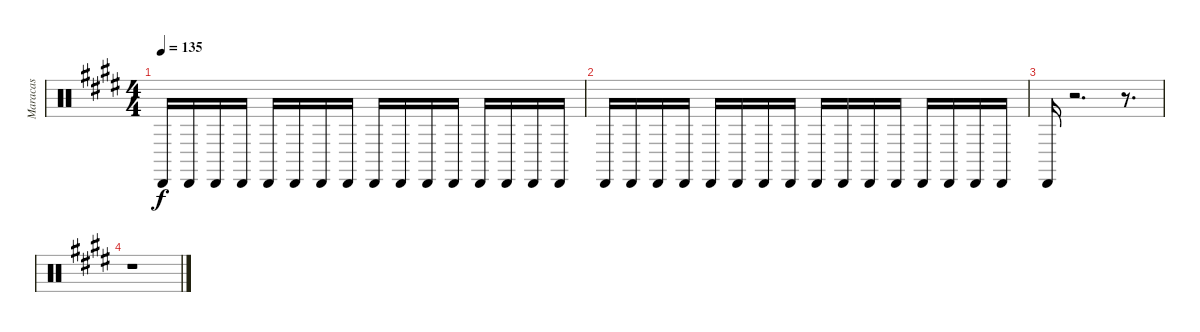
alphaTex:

\track ("Maracas" "Maracas") {instrument percussion}
\staff {score}
\articulation defaults
\ts (4 4)
\tempo 135
\clef neutral
\ks e "Cabasa (hit)".16{dy f} "Cabasa (hit)".16 "Cabasa (hit)".16 "Cabasa (hit)".16 "Cabasa (hit)".16 "Cabasa (hit)".16 "Cabasa (hit)".16 "Cabasa (hit)".16 "Cabasa (hit)".16 "Cabasa (hit)".16 "Cabasa (hit)".16 "Cabasa (hit)".16 "Cabasa (hit)".16 "Cabasa (hit)".16 "Cabasa (hit)".16 "Cabasa (hit)".16
|
"Cabasa (hit)".16 "Cabasa (hit)".16 "Cabasa (hit)".16 "Cabasa (hit)".16 "Cabasa (hit)".16 "Cabasa (hit)".16 "Cabasa (hit)".16 "Cabasa (hit)".16 "Cabasa (hit)".16 "Cabasa (hit)".16 "Cabasa (hit)".16 "Cabasa (hit)".16 "Cabasa (hit)".16 "Cabasa (hit)".16 "Cabasa (hit)".16 "Cabasa (hit)".16 |
"Cabasa (hit)".16 r.2{d} r.8{d} |
r.1
